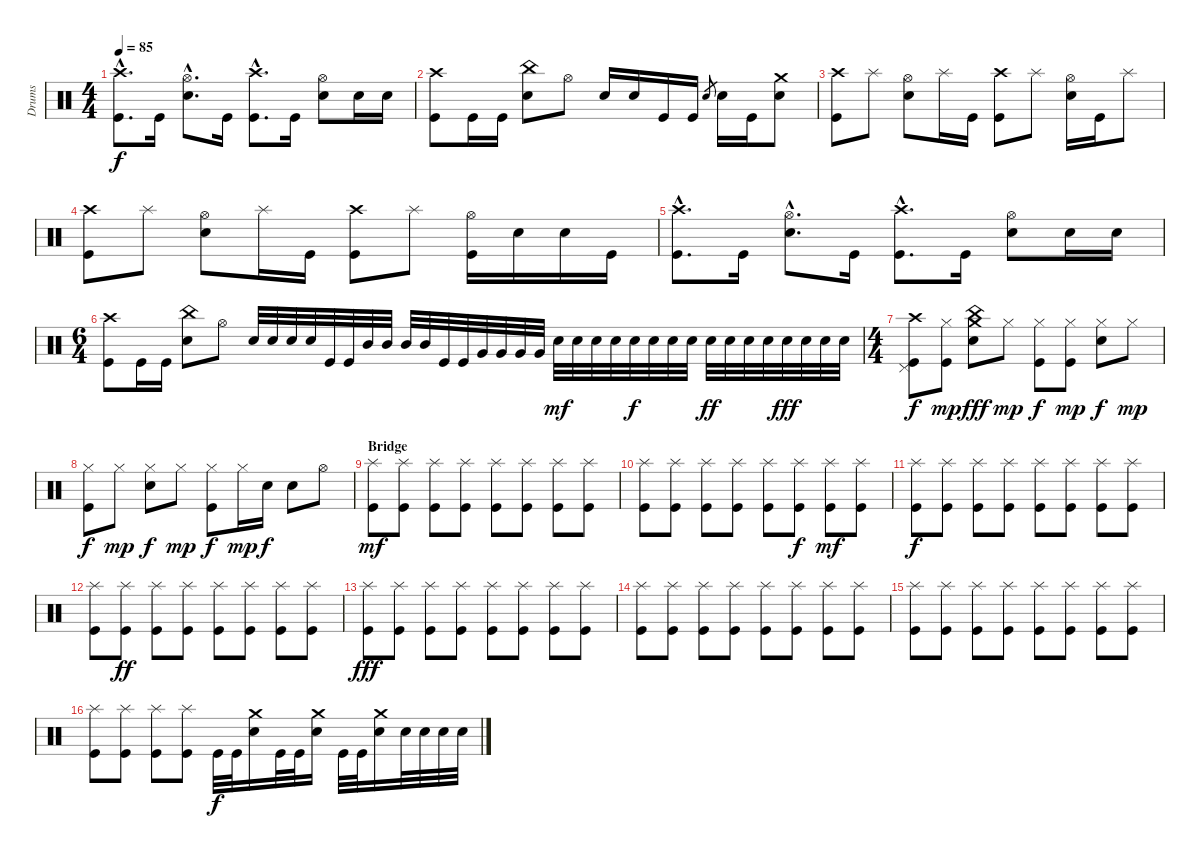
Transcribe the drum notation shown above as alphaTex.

\track ("Drums" "Drums") {instrument percussion}
\staff {score}
\articulation defaults
\ts (4 4)
\tempo 85
\clef neutral
\ks c
("Crash high (hit)"{hac} "Kick (hit)"{hac}).8{d dy f} "Kick (hit)".16 ("Hi-Hat (open)"{hac} "Electric Snare (hit)"{hac}).8{d} "Kick (hit)".16 ("Crash high (hit)"{hac} "Kick (hit)"{hac}).8{d} "Kick (hit)".16 ("Hi-Hat (open)" "Electric Snare (hit)").8 "Electric Snare (hit)".16 "Electric Snare (hit)".16 |
("Crash high (hit)" "Kick (hit)").8 "Kick (hit)".16 "Kick (hit)".16 ("China (hit)" "Electric Snare (hit)").8 "Hi-Hat (open)".8 "Electric Snare (hit)".16 "Electric Snare (hit)".16 "Kick (hit)".16 "Kick (hit)".16 "Electric Snare (hit)".8{gr} "Electric Snare (hit)".16 "Kick (hit)".16 ("Crash medium (hit)" "Electric Snare (hit)").8 |
("Crash high (hit)" "Kick (hit)").8 "Splash (hit)".8 ("Hi-Hat (open)" "Electric Snare (hit)").8 "Splash (hit)".16 "Kick (hit)".16 ("Crash high (hit)" "Kick (hit)").8 "Splash (hit)".8 ("Hi-Hat (open)" "Electric Snare (hit)").16 "Kick (hit)".16 "Splash (hit)".8 |
("Crash high (hit)" "Kick (hit)").8 "Splash (hit)".8 ("Hi-Hat (open)" "Electric Snare (hit)").8 "Splash (hit)".16 "Kick (hit)".16 ("Crash high (hit)" "Kick (hit)").8 "Splash (hit)".8 ("Hi-Hat (open)" "Kick (hit)").16 "Electric Snare (hit)".16 "Electric Snare (hit)".16 "Kick (hit)".16 |
("Crash high (hit)"{hac} "Kick (hit)"{hac}).8{d} "Kick (hit)".16 ("Hi-Hat (open)"{hac} "Electric Snare (hit)"{hac}).8{d} "Kick (hit)".16 ("Crash high (hit)"{hac} "Kick (hit)"{hac}).8{d} "Kick (hit)".16 ("Hi-Hat (open)" "Electric Snare (hit)").8 "Electric Snare (hit)".16 "Electric Snare (hit)".16 |
\ts (6 4)
("Crash high (hit)" "Kick (hit)").8 "Kick (hit)".16 "Kick (hit)".16 ("China (hit)" "Electric Snare (hit)").8 "Hi-Hat (open)".8 "Electric Snare (hit)".32 "Electric Snare (hit)".32 "Electric Snare (hit)".32 "Electric Snare (hit)".32 "Kick (hit)".32 "Kick (hit)".32 "Mid Tom (hit)".32 "Mid Tom (hit)".32 "Mid Tom (hit)".32 "Mid Tom (hit)".32 "Kick (hit)".32 "Kick (hit)".32 "Very Low Tom (hit)".32 "Very Low Tom (hit)".32 "Very Low Tom (hit)".32 "Very Low Tom (hit)".32 "Electric Snare (hit)".32{dy mf} "Electric Snare (hit)".32 "Electric Snare (hit)".32 "Electric Snare (hit)".32 "Electric Snare (hit)".32{dy f} "Electric Snare (hit)".32 "Electric Snare (hit)".32 "Electric Snare (hit)".32 "Electric Snare (hit)".32{dy ff} "Electric Snare (hit)".32 "Electric Snare (hit)".32 "Electric Snare (hit)".32 "Electric Snare (hit)".32{dy fff} "Electric Snare (hit)".32 "Electric Snare (hit)".32 "Electric Snare (hit)".32 |
\ts (4 4)
("Crash high (hit)" "Pedal Hi-Hat (hit)" "Kick (hit)").8{dy f} ("Hi-Hat (closed)" "Kick (hit)").8{dy mp} ("China (hit)" "Crash medium (hit)" "Electric Snare (hit)").8{dy fff} "Hi-Hat (closed)".8{dy mp} ("Hi-Hat (closed)" "Kick (hit)").8{dy f} ("Hi-Hat (closed)" "Kick (hit)").8{dy mp} ("Hi-Hat (closed)" "Electric Snare (hit)").8{dy f} "Hi-Hat (closed)".8{dy mp} |
("Hi-Hat (closed)" "Kick (hit)").8{dy f} "Hi-Hat (closed)".8{dy mp} ("Hi-Hat (closed)" "Electric Snare (hit)").8{dy f} "Hi-Hat (closed)".8{dy mp} ("Hi-Hat (closed)" "Kick (hit)").8{dy f} "Hi-Hat (closed)".16{dy mp} "Electric Snare (hit)".16{dy f} "Electric Snare (hit)".8 "Hi-Hat (open)".8 |
\section ("" "Bridge")
("Splash (hit)" "Kick (hit)").8{dy mf} ("Splash (hit)" "Kick (hit)").8 ("Splash (hit)" "Kick (hit)").8 ("Splash (hit)" "Kick (hit)").8 ("Splash (hit)" "Kick (hit)").8 ("Splash (hit)" "Kick (hit)").8 ("Splash (hit)" "Kick (hit)").8 ("Splash (hit)" "Kick (hit)").8 |
("Splash (hit)" "Kick (hit)").8 ("Splash (hit)" "Kick (hit)").8 ("Splash (hit)" "Kick (hit)").8 ("Splash (hit)" "Kick (hit)").8 ("Splash (hit)" "Kick (hit)").8 ("Splash (hit)" "Kick (hit)").8{dy f} ("Splash (hit)" "Kick (hit)").8{dy mf} ("Splash (hit)" "Kick (hit)").8 |
("Splash (hit)" "Kick (hit)").8{dy f} ("Splash (hit)" "Kick (hit)").8 ("Splash (hit)" "Kick (hit)").8 ("Splash (hit)" "Kick (hit)").8 ("Splash (hit)" "Kick (hit)").8 ("Splash (hit)" "Kick (hit)").8 ("Splash (hit)" "Kick (hit)").8 ("Splash (hit)" "Kick (hit)").8 |
("Splash (hit)" "Kick (hit)").8 ("Splash (hit)" "Kick (hit)").8{dy ff} ("Splash (hit)" "Kick (hit)").8 ("Splash (hit)" "Kick (hit)").8 ("Splash (hit)" "Kick (hit)").8 ("Splash (hit)" "Kick (hit)").8 ("Splash (hit)" "Kick (hit)").8 ("Splash (hit)" "Kick (hit)").8 |
("Splash (hit)" "Kick (hit)").8{dy fff} ("Splash (hit)" "Kick (hit)").8 ("Splash (hit)" "Kick (hit)").8 ("Splash (hit)" "Kick (hit)").8 ("Splash (hit)" "Kick (hit)").8 ("Splash (hit)" "Kick (hit)").8 ("Splash (hit)" "Kick (hit)").8 ("Splash (hit)" "Kick (hit)").8 |
("Splash (hit)" "Kick (hit)").8 ("Splash (hit)" "Kick (hit)").8 ("Splash (hit)" "Kick (hit)").8 ("Splash (hit)" "Kick (hit)").8 ("Splash (hit)" "Kick (hit)").8 ("Splash (hit)" "Kick (hit)").8 ("Splash (hit)" "Kick (hit)").8 ("Splash (hit)" "Kick (hit)").8 |
("Splash (hit)" "Kick (hit)").8 ("Splash (hit)" "Kick (hit)").8 ("Splash (hit)" "Kick (hit)").8 ("Splash (hit)" "Kick (hit)").8 ("Splash (hit)" "Kick (hit)").8 ("Splash (hit)" "Kick (hit)").8 ("Splash (hit)" "Kick (hit)").8 ("Splash (hit)" "Kick (hit)").8 |
("Splash (hit)" "Kick (hit)").8 ("Splash (hit)" "Kick (hit)").8 ("Splash (hit)" "Kick (hit)").8 ("Splash (hit)" "Kick (hit)").8 "Kick (hit)".32{dy f} "Kick (hit)".32 ("Crash medium (hit)" "Electric Snare (hit)").16 "Kick (hit)".32 "Kick (hit)".32 ("Crash medium (hit)" "Electric Snare (hit)").16 "Kick (hit)".32 "Kick (hit)".32 ("Crash medium (hit)" "Electric Snare (hit)").16 "Electric Snare (hit)".32 "Electric Snare (hit)".32 "Electric Snare (hit)".32 "Electric Snare (hit)".32
